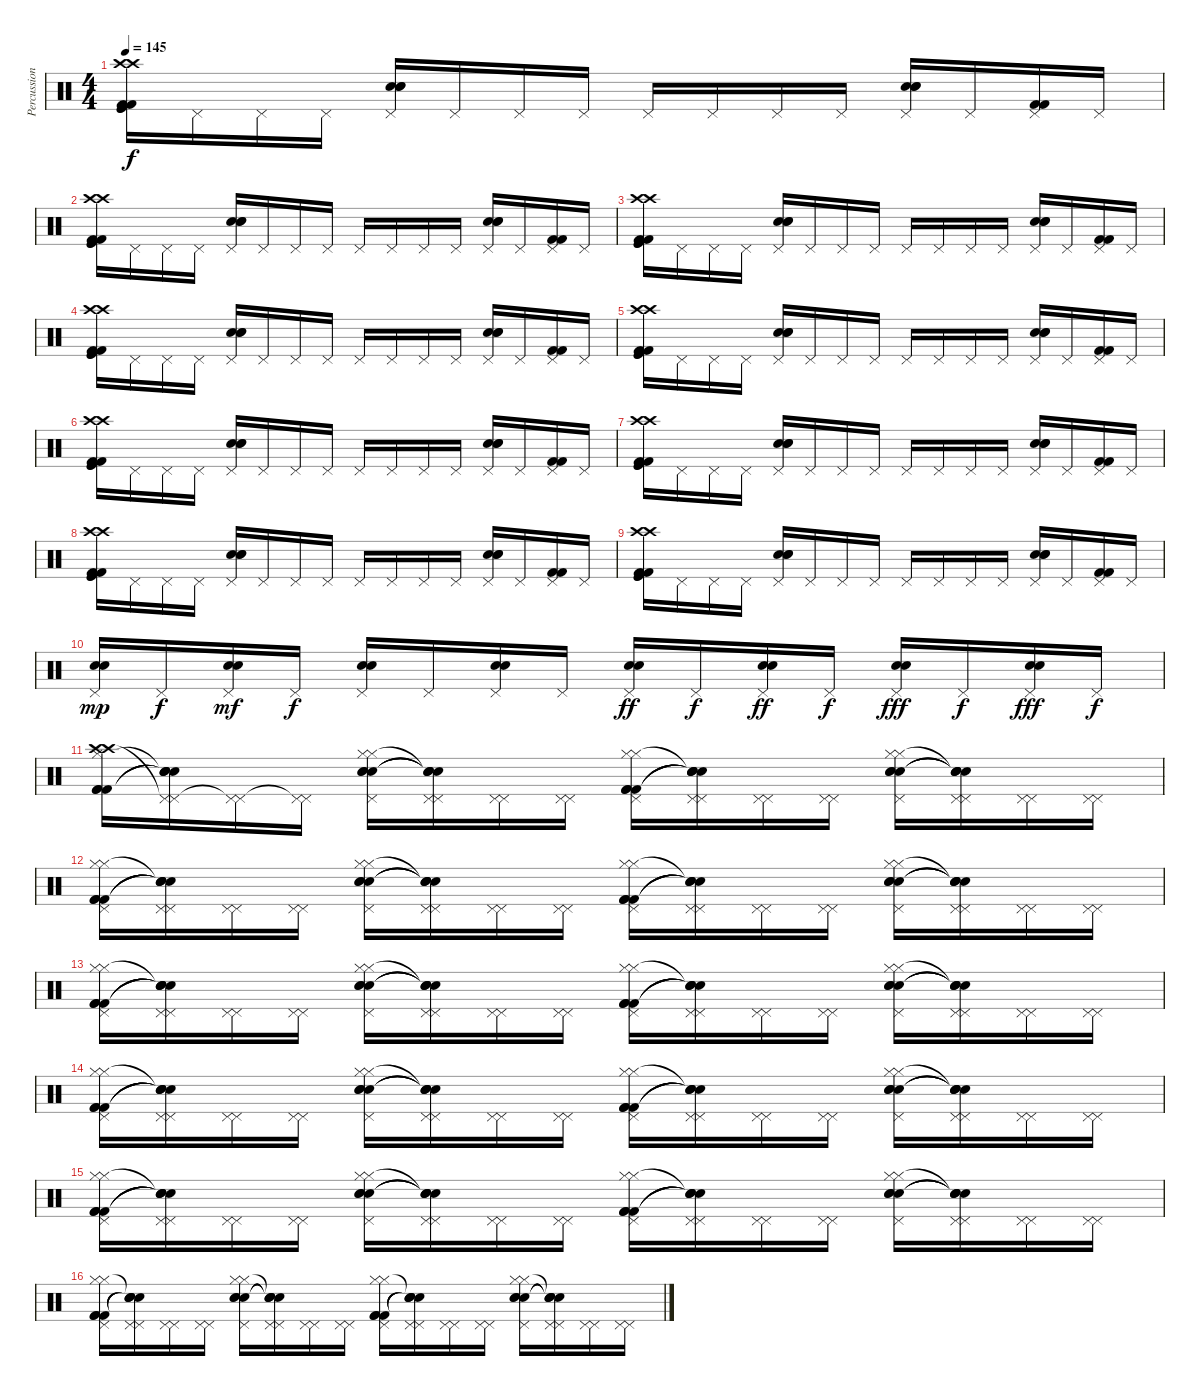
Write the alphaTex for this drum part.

\track ("Percussion" "Percussion") {instrument percussion}
\staff {score}
\articulation defaults
\ts (4 4)
\tempo 145
\clef neutral
\ks c
("Crash high (hit)" "Crash high (hit)" "Kick (hit)" "Kick (hit)" "Kick (hit) 2" "Kick (hit) 2").16{dy f} "Pedal Hi-Hat (hit)".16 "Pedal Hi-Hat (hit)".16 "Pedal Hi-Hat (hit)".16 ("Pedal Hi-Hat (hit)" "Snare (hit) 2" "Snare (hit) 2" "Snare (hit) 2").16 "Pedal Hi-Hat (hit)".16 "Pedal Hi-Hat (hit)".16 "Pedal Hi-Hat (hit)".16 "Pedal Hi-Hat (hit)".16 "Pedal Hi-Hat (hit)".16 "Pedal Hi-Hat (hit)".16 "Pedal Hi-Hat (hit)".16 ("Pedal Hi-Hat (hit)" "Snare (hit) 2" "Snare (hit) 2" "Snare (hit) 2").16 "Pedal Hi-Hat (hit)".16 ("Pedal Hi-Hat (hit)" "Kick (hit) 2" "Kick (hit) 2").16 "Pedal Hi-Hat (hit)".16 |
("Crash high (hit)" "Crash high (hit)" "Kick (hit)" "Kick (hit)" "Kick (hit) 2" "Kick (hit) 2").16 "Pedal Hi-Hat (hit)".16 "Pedal Hi-Hat (hit)".16 "Pedal Hi-Hat (hit)".16 ("Pedal Hi-Hat (hit)" "Snare (hit) 2" "Snare (hit) 2" "Snare (hit) 2").16 "Pedal Hi-Hat (hit)".16 "Pedal Hi-Hat (hit)".16 "Pedal Hi-Hat (hit)".16 "Pedal Hi-Hat (hit)".16 "Pedal Hi-Hat (hit)".16 "Pedal Hi-Hat (hit)".16 "Pedal Hi-Hat (hit)".16 ("Pedal Hi-Hat (hit)" "Snare (hit) 2" "Snare (hit) 2" "Snare (hit) 2").16 "Pedal Hi-Hat (hit)".16 ("Pedal Hi-Hat (hit)" "Kick (hit) 2" "Kick (hit) 2").16 "Pedal Hi-Hat (hit)".16 |
("Crash high (hit)" "Crash high (hit)" "Kick (hit)" "Kick (hit)" "Kick (hit) 2" "Kick (hit) 2").16 "Pedal Hi-Hat (hit)".16 "Pedal Hi-Hat (hit)".16 "Pedal Hi-Hat (hit)".16 ("Pedal Hi-Hat (hit)" "Snare (hit) 2" "Snare (hit) 2" "Snare (hit) 2").16 "Pedal Hi-Hat (hit)".16 "Pedal Hi-Hat (hit)".16 "Pedal Hi-Hat (hit)".16 "Pedal Hi-Hat (hit)".16 "Pedal Hi-Hat (hit)".16 "Pedal Hi-Hat (hit)".16 "Pedal Hi-Hat (hit)".16 ("Pedal Hi-Hat (hit)" "Snare (hit) 2" "Snare (hit) 2" "Snare (hit) 2").16 "Pedal Hi-Hat (hit)".16 ("Pedal Hi-Hat (hit)" "Kick (hit) 2" "Kick (hit) 2").16 "Pedal Hi-Hat (hit)".16 |
("Crash high (hit)" "Crash high (hit)" "Kick (hit)" "Kick (hit)" "Kick (hit) 2" "Kick (hit) 2").16 "Pedal Hi-Hat (hit)".16 "Pedal Hi-Hat (hit)".16 "Pedal Hi-Hat (hit)".16 ("Pedal Hi-Hat (hit)" "Snare (hit) 2" "Snare (hit) 2" "Snare (hit) 2").16 "Pedal Hi-Hat (hit)".16 "Pedal Hi-Hat (hit)".16 "Pedal Hi-Hat (hit)".16 "Pedal Hi-Hat (hit)".16 "Pedal Hi-Hat (hit)".16 "Pedal Hi-Hat (hit)".16 "Pedal Hi-Hat (hit)".16 ("Pedal Hi-Hat (hit)" "Snare (hit) 2" "Snare (hit) 2" "Snare (hit) 2").16 "Pedal Hi-Hat (hit)".16 ("Pedal Hi-Hat (hit)" "Kick (hit) 2" "Kick (hit) 2").16 "Pedal Hi-Hat (hit)".16 |
("Crash high (hit)" "Crash high (hit)" "Kick (hit)" "Kick (hit)" "Kick (hit) 2" "Kick (hit) 2").16 "Pedal Hi-Hat (hit)".16 "Pedal Hi-Hat (hit)".16 "Pedal Hi-Hat (hit)".16 ("Pedal Hi-Hat (hit)" "Snare (hit) 2" "Snare (hit) 2" "Snare (hit) 2").16 "Pedal Hi-Hat (hit)".16 "Pedal Hi-Hat (hit)".16 "Pedal Hi-Hat (hit)".16 "Pedal Hi-Hat (hit)".16 "Pedal Hi-Hat (hit)".16 "Pedal Hi-Hat (hit)".16 "Pedal Hi-Hat (hit)".16 ("Pedal Hi-Hat (hit)" "Snare (hit) 2" "Snare (hit) 2" "Snare (hit) 2").16 "Pedal Hi-Hat (hit)".16 ("Pedal Hi-Hat (hit)" "Kick (hit) 2" "Kick (hit) 2").16 "Pedal Hi-Hat (hit)".16 |
("Crash high (hit)" "Crash high (hit)" "Kick (hit)" "Kick (hit)" "Kick (hit) 2" "Kick (hit) 2").16 "Pedal Hi-Hat (hit)".16 "Pedal Hi-Hat (hit)".16 "Pedal Hi-Hat (hit)".16 ("Pedal Hi-Hat (hit)" "Snare (hit) 2" "Snare (hit) 2" "Snare (hit) 2").16 "Pedal Hi-Hat (hit)".16 "Pedal Hi-Hat (hit)".16 "Pedal Hi-Hat (hit)".16 "Pedal Hi-Hat (hit)".16 "Pedal Hi-Hat (hit)".16 "Pedal Hi-Hat (hit)".16 "Pedal Hi-Hat (hit)".16 ("Pedal Hi-Hat (hit)" "Snare (hit) 2" "Snare (hit) 2" "Snare (hit) 2").16 "Pedal Hi-Hat (hit)".16 ("Pedal Hi-Hat (hit)" "Kick (hit) 2" "Kick (hit) 2").16 "Pedal Hi-Hat (hit)".16 |
("Crash high (hit)" "Crash high (hit)" "Kick (hit)" "Kick (hit)" "Kick (hit) 2" "Kick (hit) 2").16 "Pedal Hi-Hat (hit)".16 "Pedal Hi-Hat (hit)".16 "Pedal Hi-Hat (hit)".16 ("Pedal Hi-Hat (hit)" "Snare (hit) 2" "Snare (hit) 2" "Snare (hit) 2").16 "Pedal Hi-Hat (hit)".16 "Pedal Hi-Hat (hit)".16 "Pedal Hi-Hat (hit)".16 "Pedal Hi-Hat (hit)".16 "Pedal Hi-Hat (hit)".16 "Pedal Hi-Hat (hit)".16 "Pedal Hi-Hat (hit)".16 ("Pedal Hi-Hat (hit)" "Snare (hit) 2" "Snare (hit) 2" "Snare (hit) 2").16 "Pedal Hi-Hat (hit)".16 ("Pedal Hi-Hat (hit)" "Kick (hit) 2" "Kick (hit) 2").16 "Pedal Hi-Hat (hit)".16 |
("Crash high (hit)" "Crash high (hit)" "Kick (hit)" "Kick (hit)" "Kick (hit) 2" "Kick (hit) 2").16 "Pedal Hi-Hat (hit)".16 "Pedal Hi-Hat (hit)".16 "Pedal Hi-Hat (hit)".16 ("Pedal Hi-Hat (hit)" "Snare (hit) 2" "Snare (hit) 2" "Snare (hit) 2").16 "Pedal Hi-Hat (hit)".16 "Pedal Hi-Hat (hit)".16 "Pedal Hi-Hat (hit)".16 "Pedal Hi-Hat (hit)".16 "Pedal Hi-Hat (hit)".16 "Pedal Hi-Hat (hit)".16 "Pedal Hi-Hat (hit)".16 ("Pedal Hi-Hat (hit)" "Snare (hit) 2" "Snare (hit) 2" "Snare (hit) 2").16 "Pedal Hi-Hat (hit)".16 ("Pedal Hi-Hat (hit)" "Kick (hit) 2" "Kick (hit) 2").16 "Pedal Hi-Hat (hit)".16 |
("Crash high (hit)" "Crash high (hit)" "Kick (hit)" "Kick (hit)" "Kick (hit) 2" "Kick (hit) 2").16 "Pedal Hi-Hat (hit)".16 "Pedal Hi-Hat (hit)".16 "Pedal Hi-Hat (hit)".16 ("Pedal Hi-Hat (hit)" "Snare (hit) 2" "Snare (hit) 2" "Snare (hit) 2").16 "Pedal Hi-Hat (hit)".16 "Pedal Hi-Hat (hit)".16 "Pedal Hi-Hat (hit)".16 "Pedal Hi-Hat (hit)".16 "Pedal Hi-Hat (hit)".16 "Pedal Hi-Hat (hit)".16 "Pedal Hi-Hat (hit)".16 ("Pedal Hi-Hat (hit)" "Snare (hit) 2" "Snare (hit) 2" "Snare (hit) 2").16 "Pedal Hi-Hat (hit)".16 ("Pedal Hi-Hat (hit)" "Kick (hit) 2" "Kick (hit) 2").16 "Pedal Hi-Hat (hit)".16 |
("Pedal Hi-Hat (hit)" "Snare (hit) 2" "Snare (hit) 2").16{dy mp} "Pedal Hi-Hat (hit)".16{dy f} ("Pedal Hi-Hat (hit)" "Snare (hit) 2" "Snare (hit) 2").16{dy mf} "Pedal Hi-Hat (hit)".16{dy f} ("Pedal Hi-Hat (hit)" "Snare (hit) 2" "Snare (hit) 2").16 "Pedal Hi-Hat (hit)".16 ("Pedal Hi-Hat (hit)" "Snare (hit) 2" "Snare (hit) 2").16 "Pedal Hi-Hat (hit)".16 ("Pedal Hi-Hat (hit)" "Snare (hit) 2" "Snare (hit) 2").16{dy ff} "Pedal Hi-Hat (hit)".16{dy f} ("Pedal Hi-Hat (hit)" "Snare (hit) 2" "Snare (hit) 2").16{dy ff} "Pedal Hi-Hat (hit)".16{dy f} ("Pedal Hi-Hat (hit)" "Snare (hit) 2" "Snare (hit) 2").16{dy fff} "Pedal Hi-Hat (hit)".16{dy f} ("Pedal Hi-Hat (hit)" "Snare (hit) 2" "Snare (hit) 2").16{dy fff} "Pedal Hi-Hat (hit)".16{dy f} |
("Crash high (hit)" "Crash high (hit)" "Hi-Hat (closed)" "Kick (hit) 2" "Kick (hit) 2" "Kick (hit) 2").16 ("Pedal Hi-Hat (hit)"{t} "Pedal Hi-Hat (hit)" "Snare (hit)"{t} "Snare (hit)"{t} "Snare (hit)"{t} "Snare (hit)"{t}).16 ("Pedal Hi-Hat (hit)"{t} "Pedal Hi-Hat (hit)").16 ("Pedal Hi-Hat (hit)"{t} "Pedal Hi-Hat (hit)").16 ("Pedal Hi-Hat (hit)" "Hi-Hat (closed)" "Hi-Hat (closed)" "Snare (hit) 2" "Snare (hit) 2" "Snare (hit) 2").16 ("Pedal Hi-Hat (hit)" "Pedal Hi-Hat (hit)" "Snare (hit)"{t} "Snare (hit)"{t} "Snare (hit)"{t} "Snare (hit)"{t}).16 ("Pedal Hi-Hat (hit)" "Pedal Hi-Hat (hit)").16 ("Pedal Hi-Hat (hit)" "Pedal Hi-Hat (hit)").16 ("Pedal Hi-Hat (hit)" "Hi-Hat (closed)" "Hi-Hat (closed)" "Kick (hit) 2" "Kick (hit) 2" "Kick (hit) 2").16 ("Pedal Hi-Hat (hit)" "Pedal Hi-Hat (hit)" "Snare (hit)"{t} "Snare (hit)"{t} "Snare (hit)"{t} "Snare (hit)"{t}).16 ("Pedal Hi-Hat (hit)" "Pedal Hi-Hat (hit)").16 ("Pedal Hi-Hat (hit)" "Pedal Hi-Hat (hit)").16 ("Pedal Hi-Hat (hit)" "Hi-Hat (closed)" "Hi-Hat (closed)" "Snare (hit) 2" "Snare (hit) 2" "Snare (hit) 2").16 ("Pedal Hi-Hat (hit)" "Pedal Hi-Hat (hit)" "Snare (hit)"{t} "Snare (hit)"{t} "Snare (hit)"{t} "Snare (hit)"{t}).16 ("Pedal Hi-Hat (hit)" "Pedal Hi-Hat (hit)").16 ("Pedal Hi-Hat (hit)" "Pedal Hi-Hat (hit)").16 |
("Pedal Hi-Hat (hit)" "Hi-Hat (closed)" "Hi-Hat (closed)" "Kick (hit) 2" "Kick (hit) 2" "Kick (hit) 2").16 ("Pedal Hi-Hat (hit)" "Pedal Hi-Hat (hit)" "Snare (hit)"{t} "Snare (hit)"{t} "Snare (hit)"{t} "Snare (hit)"{t}).16 ("Pedal Hi-Hat (hit)" "Pedal Hi-Hat (hit)").16 ("Pedal Hi-Hat (hit)" "Pedal Hi-Hat (hit)").16 ("Pedal Hi-Hat (hit)" "Hi-Hat (closed)" "Hi-Hat (closed)" "Snare (hit) 2" "Snare (hit) 2" "Snare (hit) 2").16 ("Pedal Hi-Hat (hit)" "Pedal Hi-Hat (hit)" "Snare (hit)"{t} "Snare (hit)"{t} "Snare (hit)"{t} "Snare (hit)"{t}).16 ("Pedal Hi-Hat (hit)" "Pedal Hi-Hat (hit)").16 ("Pedal Hi-Hat (hit)" "Pedal Hi-Hat (hit)").16 ("Pedal Hi-Hat (hit)" "Hi-Hat (closed)" "Hi-Hat (closed)" "Kick (hit) 2" "Kick (hit) 2" "Kick (hit) 2").16 ("Pedal Hi-Hat (hit)" "Pedal Hi-Hat (hit)" "Snare (hit)"{t} "Snare (hit)"{t} "Snare (hit)"{t} "Snare (hit)"{t}).16 ("Pedal Hi-Hat (hit)" "Pedal Hi-Hat (hit)").16 ("Pedal Hi-Hat (hit)" "Pedal Hi-Hat (hit)").16 ("Pedal Hi-Hat (hit)" "Hi-Hat (closed)" "Hi-Hat (closed)" "Snare (hit) 2" "Snare (hit) 2" "Snare (hit) 2").16 ("Pedal Hi-Hat (hit)" "Pedal Hi-Hat (hit)" "Snare (hit)"{t} "Snare (hit)"{t} "Snare (hit)"{t} "Snare (hit)"{t}).16 ("Pedal Hi-Hat (hit)" "Pedal Hi-Hat (hit)").16 ("Pedal Hi-Hat (hit)" "Pedal Hi-Hat (hit)").16 |
("Pedal Hi-Hat (hit)" "Hi-Hat (closed)" "Hi-Hat (closed)" "Kick (hit) 2" "Kick (hit) 2" "Kick (hit) 2").16 ("Pedal Hi-Hat (hit)" "Pedal Hi-Hat (hit)" "Snare (hit)"{t} "Snare (hit)"{t} "Snare (hit)"{t} "Snare (hit)"{t}).16 ("Pedal Hi-Hat (hit)" "Pedal Hi-Hat (hit)").16 ("Pedal Hi-Hat (hit)" "Pedal Hi-Hat (hit)").16 ("Pedal Hi-Hat (hit)" "Hi-Hat (closed)" "Hi-Hat (closed)" "Snare (hit) 2" "Snare (hit) 2" "Snare (hit) 2").16 ("Pedal Hi-Hat (hit)" "Pedal Hi-Hat (hit)" "Snare (hit)"{t} "Snare (hit)"{t} "Snare (hit)"{t} "Snare (hit)"{t}).16 ("Pedal Hi-Hat (hit)" "Pedal Hi-Hat (hit)").16 ("Pedal Hi-Hat (hit)" "Pedal Hi-Hat (hit)").16 ("Pedal Hi-Hat (hit)" "Hi-Hat (closed)" "Hi-Hat (closed)" "Kick (hit) 2" "Kick (hit) 2" "Kick (hit) 2").16 ("Pedal Hi-Hat (hit)" "Pedal Hi-Hat (hit)" "Snare (hit)"{t} "Snare (hit)"{t} "Snare (hit)"{t} "Snare (hit)"{t}).16 ("Pedal Hi-Hat (hit)" "Pedal Hi-Hat (hit)").16 ("Pedal Hi-Hat (hit)" "Pedal Hi-Hat (hit)").16 ("Pedal Hi-Hat (hit)" "Hi-Hat (closed)" "Hi-Hat (closed)" "Snare (hit) 2" "Snare (hit) 2" "Snare (hit) 2").16 ("Pedal Hi-Hat (hit)" "Pedal Hi-Hat (hit)" "Snare (hit)"{t} "Snare (hit)"{t} "Snare (hit)"{t} "Snare (hit)"{t}).16 ("Pedal Hi-Hat (hit)" "Pedal Hi-Hat (hit)").16 ("Pedal Hi-Hat (hit)" "Pedal Hi-Hat (hit)").16 |
("Pedal Hi-Hat (hit)" "Hi-Hat (closed)" "Hi-Hat (closed)" "Kick (hit) 2" "Kick (hit) 2" "Kick (hit) 2").16 ("Pedal Hi-Hat (hit)" "Pedal Hi-Hat (hit)" "Snare (hit)"{t} "Snare (hit)"{t} "Snare (hit)"{t} "Snare (hit)"{t}).16 ("Pedal Hi-Hat (hit)" "Pedal Hi-Hat (hit)").16 ("Pedal Hi-Hat (hit)" "Pedal Hi-Hat (hit)").16 ("Pedal Hi-Hat (hit)" "Hi-Hat (closed)" "Hi-Hat (closed)" "Snare (hit) 2" "Snare (hit) 2" "Snare (hit) 2").16 ("Pedal Hi-Hat (hit)" "Pedal Hi-Hat (hit)" "Snare (hit)"{t} "Snare (hit)"{t} "Snare (hit)"{t} "Snare (hit)"{t}).16 ("Pedal Hi-Hat (hit)" "Pedal Hi-Hat (hit)").16 ("Pedal Hi-Hat (hit)" "Pedal Hi-Hat (hit)").16 ("Pedal Hi-Hat (hit)" "Hi-Hat (closed)" "Hi-Hat (closed)" "Kick (hit) 2" "Kick (hit) 2" "Kick (hit) 2").16 ("Pedal Hi-Hat (hit)" "Pedal Hi-Hat (hit)" "Snare (hit)"{t} "Snare (hit)"{t} "Snare (hit)"{t} "Snare (hit)"{t}).16 ("Pedal Hi-Hat (hit)" "Pedal Hi-Hat (hit)").16 ("Pedal Hi-Hat (hit)" "Pedal Hi-Hat (hit)").16 ("Pedal Hi-Hat (hit)" "Hi-Hat (closed)" "Hi-Hat (closed)" "Snare (hit) 2" "Snare (hit) 2" "Snare (hit) 2").16 ("Pedal Hi-Hat (hit)" "Pedal Hi-Hat (hit)" "Snare (hit)"{t} "Snare (hit)"{t} "Snare (hit)"{t} "Snare (hit)"{t}).16 ("Pedal Hi-Hat (hit)" "Pedal Hi-Hat (hit)").16 ("Pedal Hi-Hat (hit)" "Pedal Hi-Hat (hit)").16 |
("Pedal Hi-Hat (hit)" "Hi-Hat (closed)" "Hi-Hat (closed)" "Kick (hit) 2" "Kick (hit) 2" "Kick (hit) 2").16 ("Pedal Hi-Hat (hit)" "Pedal Hi-Hat (hit)" "Snare (hit)"{t} "Snare (hit)"{t} "Snare (hit)"{t} "Snare (hit)"{t}).16 ("Pedal Hi-Hat (hit)" "Pedal Hi-Hat (hit)").16 ("Pedal Hi-Hat (hit)" "Pedal Hi-Hat (hit)").16 ("Pedal Hi-Hat (hit)" "Hi-Hat (closed)" "Hi-Hat (closed)" "Snare (hit) 2" "Snare (hit) 2" "Snare (hit) 2").16 ("Pedal Hi-Hat (hit)" "Pedal Hi-Hat (hit)" "Snare (hit)"{t} "Snare (hit)"{t} "Snare (hit)"{t} "Snare (hit)"{t}).16 ("Pedal Hi-Hat (hit)" "Pedal Hi-Hat (hit)").16 ("Pedal Hi-Hat (hit)" "Pedal Hi-Hat (hit)").16 ("Pedal Hi-Hat (hit)" "Hi-Hat (closed)" "Hi-Hat (closed)" "Kick (hit) 2" "Kick (hit) 2" "Kick (hit) 2").16 ("Pedal Hi-Hat (hit)" "Pedal Hi-Hat (hit)" "Snare (hit)"{t} "Snare (hit)"{t} "Snare (hit)"{t} "Snare (hit)"{t}).16 ("Pedal Hi-Hat (hit)" "Pedal Hi-Hat (hit)").16 ("Pedal Hi-Hat (hit)" "Pedal Hi-Hat (hit)").16 ("Pedal Hi-Hat (hit)" "Hi-Hat (closed)" "Hi-Hat (closed)" "Snare (hit) 2" "Snare (hit) 2" "Snare (hit) 2").16 ("Pedal Hi-Hat (hit)" "Pedal Hi-Hat (hit)" "Snare (hit)"{t} "Snare (hit)"{t} "Snare (hit)"{t} "Snare (hit)"{t}).16 ("Pedal Hi-Hat (hit)" "Pedal Hi-Hat (hit)").16 ("Pedal Hi-Hat (hit)" "Pedal Hi-Hat (hit)").16 |
("Pedal Hi-Hat (hit)" "Hi-Hat (closed)" "Hi-Hat (closed)" "Kick (hit) 2" "Kick (hit) 2" "Kick (hit) 2").16 ("Pedal Hi-Hat (hit)" "Pedal Hi-Hat (hit)" "Snare (hit)"{t} "Snare (hit)"{t} "Snare (hit)"{t} "Snare (hit)"{t}).16 ("Pedal Hi-Hat (hit)" "Pedal Hi-Hat (hit)").16 ("Pedal Hi-Hat (hit)" "Pedal Hi-Hat (hit)").16 ("Pedal Hi-Hat (hit)" "Hi-Hat (closed)" "Hi-Hat (closed)" "Snare (hit) 2" "Snare (hit) 2" "Snare (hit) 2").16 ("Pedal Hi-Hat (hit)" "Pedal Hi-Hat (hit)" "Snare (hit)"{t} "Snare (hit)"{t} "Snare (hit)"{t} "Snare (hit)"{t}).16 ("Pedal Hi-Hat (hit)" "Pedal Hi-Hat (hit)").16 ("Pedal Hi-Hat (hit)" "Pedal Hi-Hat (hit)").16 ("Pedal Hi-Hat (hit)" "Hi-Hat (closed)" "Hi-Hat (closed)" "Kick (hit) 2" "Kick (hit) 2" "Kick (hit) 2").16 ("Pedal Hi-Hat (hit)" "Pedal Hi-Hat (hit)" "Snare (hit)"{t} "Snare (hit)"{t} "Snare (hit)"{t} "Snare (hit)"{t}).16 ("Pedal Hi-Hat (hit)" "Pedal Hi-Hat (hit)").16 ("Pedal Hi-Hat (hit)" "Pedal Hi-Hat (hit)").16 ("Pedal Hi-Hat (hit)" "Hi-Hat (closed)" "Hi-Hat (closed)" "Snare (hit) 2" "Snare (hit) 2" "Snare (hit) 2").16 ("Pedal Hi-Hat (hit)" "Pedal Hi-Hat (hit)" "Snare (hit)"{t} "Snare (hit)"{t} "Snare (hit)"{t} "Snare (hit)"{t}).16 ("Pedal Hi-Hat (hit)" "Pedal Hi-Hat (hit)").16 ("Pedal Hi-Hat (hit)" "Pedal Hi-Hat (hit)").16
